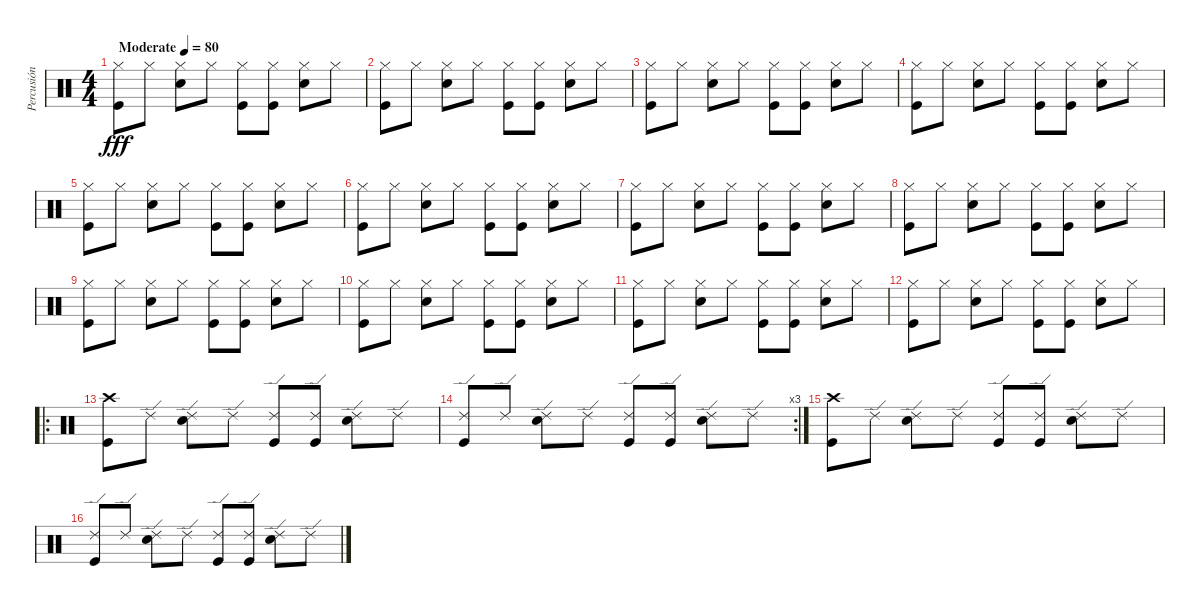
\track ("Percusión" "Percusión") {instrument percussion}
\staff {score}
\articulation defaults
\ts (4 4)
\tempo (80 "Moderate")
\clef neutral
\ks c
("Hi-Hat (closed)" "Kick (hit)").8{dy fff} "Hi-Hat (closed)".8 ("Hi-Hat (closed)" "Electric Snare (hit)").8 "Hi-Hat (closed)".8 ("Hi-Hat (closed)" "Kick (hit)").8 ("Hi-Hat (closed)" "Kick (hit)").8 ("Hi-Hat (closed)" "Electric Snare (hit)").8 "Hi-Hat (closed)".8 |
("Hi-Hat (closed)" "Kick (hit)").8 "Hi-Hat (closed)".8 ("Hi-Hat (closed)" "Electric Snare (hit)").8 "Hi-Hat (closed)".8 ("Hi-Hat (closed)" "Kick (hit)").8 ("Hi-Hat (closed)" "Kick (hit)").8 ("Hi-Hat (closed)" "Electric Snare (hit)").8 "Hi-Hat (closed)".8 |
("Hi-Hat (closed)" "Kick (hit)").8 "Hi-Hat (closed)".8 ("Hi-Hat (closed)" "Electric Snare (hit)").8 "Hi-Hat (closed)".8 ("Hi-Hat (closed)" "Kick (hit)").8 ("Hi-Hat (closed)" "Kick (hit)").8 ("Hi-Hat (closed)" "Electric Snare (hit)").8 "Hi-Hat (closed)".8 |
("Hi-Hat (closed)" "Kick (hit)").8 "Hi-Hat (closed)".8 ("Hi-Hat (closed)" "Electric Snare (hit)").8 "Hi-Hat (closed)".8 ("Hi-Hat (closed)" "Kick (hit)").8 ("Hi-Hat (closed)" "Kick (hit)").8 ("Hi-Hat (closed)" "Electric Snare (hit)").8 "Hi-Hat (closed)".8 |
("Hi-Hat (closed)" "Kick (hit)").8 "Hi-Hat (closed)".8 ("Hi-Hat (closed)" "Electric Snare (hit)").8 "Hi-Hat (closed)".8 ("Hi-Hat (closed)" "Kick (hit)").8 ("Hi-Hat (closed)" "Kick (hit)").8 ("Hi-Hat (closed)" "Electric Snare (hit)").8 "Hi-Hat (closed)".8 |
("Hi-Hat (closed)" "Kick (hit)").8 "Hi-Hat (closed)".8 ("Hi-Hat (closed)" "Electric Snare (hit)").8 "Hi-Hat (closed)".8 ("Hi-Hat (closed)" "Kick (hit)").8 ("Hi-Hat (closed)" "Kick (hit)").8 ("Hi-Hat (closed)" "Electric Snare (hit)").8 "Hi-Hat (closed)".8 |
("Hi-Hat (closed)" "Kick (hit)").8 "Hi-Hat (closed)".8 ("Hi-Hat (closed)" "Electric Snare (hit)").8 "Hi-Hat (closed)".8 ("Hi-Hat (closed)" "Kick (hit)").8 ("Hi-Hat (closed)" "Kick (hit)").8 ("Hi-Hat (closed)" "Electric Snare (hit)").8 "Hi-Hat (closed)".8 |
("Hi-Hat (closed)" "Kick (hit)").8 "Hi-Hat (closed)".8 ("Hi-Hat (closed)" "Electric Snare (hit)").8 "Hi-Hat (closed)".8 ("Hi-Hat (closed)" "Kick (hit)").8 ("Hi-Hat (closed)" "Kick (hit)").8 ("Hi-Hat (closed)" "Electric Snare (hit)").8 "Hi-Hat (closed)".8 |
("Hi-Hat (closed)" "Kick (hit)").8 "Hi-Hat (closed)".8 ("Hi-Hat (closed)" "Electric Snare (hit)").8 "Hi-Hat (closed)".8 ("Hi-Hat (closed)" "Kick (hit)").8 ("Hi-Hat (closed)" "Kick (hit)").8 ("Hi-Hat (closed)" "Electric Snare (hit)").8 "Hi-Hat (closed)".8 |
("Hi-Hat (closed)" "Kick (hit)").8 "Hi-Hat (closed)".8 ("Hi-Hat (closed)" "Electric Snare (hit)").8 "Hi-Hat (closed)".8 ("Hi-Hat (closed)" "Kick (hit)").8 ("Hi-Hat (closed)" "Kick (hit)").8 ("Hi-Hat (closed)" "Electric Snare (hit)").8 "Hi-Hat (closed)".8 |
("Hi-Hat (closed)" "Kick (hit)").8 "Hi-Hat (closed)".8 ("Hi-Hat (closed)" "Electric Snare (hit)").8 "Hi-Hat (closed)".8 ("Hi-Hat (closed)" "Kick (hit)").8 ("Hi-Hat (closed)" "Kick (hit)").8 ("Hi-Hat (closed)" "Electric Snare (hit)").8 "Hi-Hat (closed)".8 |
("Hi-Hat (closed)" "Kick (hit)").8 "Hi-Hat (closed)".8 ("Hi-Hat (closed)" "Electric Snare (hit)").8 "Hi-Hat (closed)".8 ("Hi-Hat (closed)" "Kick (hit)").8 ("Hi-Hat (closed)" "Kick (hit)").8 ("Hi-Hat (closed)" "Electric Snare (hit)").8 "Hi-Hat (closed)".8 |
\ro
("Crash high (hit)" "Kick (hit)").8 "Ride (edge) 2".8 ("Ride (edge) 2" "Electric Snare (hit)").8 "Ride (edge) 2".8 ("Ride (edge) 2" "Kick (hit)").8 ("Ride (edge) 2" "Kick (hit)").8 ("Ride (edge) 2" "Electric Snare (hit)").8 "Ride (edge) 2".8 |
\rc 3
("Ride (edge) 2" "Kick (hit)").8 "Ride (edge) 2".8 ("Ride (edge) 2" "Electric Snare (hit)").8 "Ride (edge) 2".8 ("Ride (edge) 2" "Kick (hit)").8 ("Ride (edge) 2" "Kick (hit)").8 ("Ride (edge) 2" "Electric Snare (hit)").8 "Ride (edge) 2".8 |
("Crash high (hit)" "Kick (hit)").8 "Ride (edge) 2".8 ("Ride (edge) 2" "Electric Snare (hit)").8 "Ride (edge) 2".8 ("Ride (edge) 2" "Kick (hit)").8 ("Ride (edge) 2" "Kick (hit)").8 ("Ride (edge) 2" "Electric Snare (hit)").8 "Ride (edge) 2".8 |
("Ride (edge) 2" "Kick (hit)").8 "Ride (edge) 2".8 ("Ride (edge) 2" "Electric Snare (hit)").8 "Ride (edge) 2".8 ("Ride (edge) 2" "Kick (hit)").8 ("Ride (edge) 2" "Kick (hit)").8 ("Ride (edge) 2" "Electric Snare (hit)").8 "Ride (edge) 2".8
